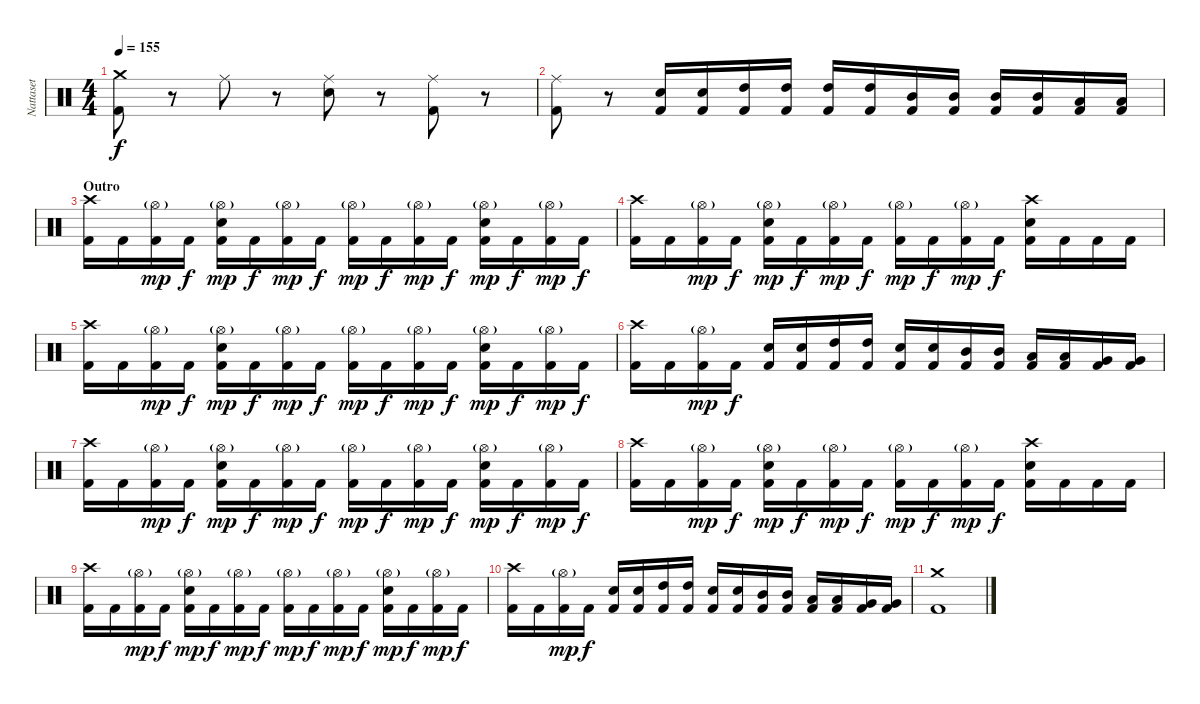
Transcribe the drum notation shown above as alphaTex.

\track ("Nattaset" "Nattaset") {instrument percussion}
\staff {score}
\articulation defaults
\ts (4 4)
\tempo 155
\clef neutral
\ks c
("Crash medium (hit)" "Kick (hit) 2").8{dy f} r.8 "Ride (middle)".8 r.8 ("Ride (middle)" "Electric Snare (hit)").8 r.8 ("Ride (middle)" "Kick (hit) 2").8 r.8 |
("Ride (middle)" "Kick (hit) 2").8 r.8 ("Electric Snare (hit)" "Kick (hit) 2").16 ("Electric Snare (hit)" "Kick (hit) 2").16 ("High Tom (hit)" "Kick (hit) 2").16 ("High Tom (hit)" "Kick (hit) 2").16 ("High Tom (hit)" "Kick (hit) 2").16 ("High Tom (hit)" "Kick (hit) 2").16 ("Mid Tom (hit)" "Kick (hit) 2").16 ("Mid Tom (hit)" "Kick (hit) 2").16 ("Mid Tom (hit)" "Kick (hit) 2").16 ("Mid Tom (hit)" "Kick (hit) 2").16 ("Low Tom (hit)" "Kick (hit) 2").16 ("Low Tom (hit)" "Kick (hit) 2").16 |
\section ("" "Outro")
("Crash high (hit)" "Kick (hit) 2").16 "Kick (hit) 2".16 ("Hi-Hat (open)"{g} "Kick (hit) 2").16{dy mp} "Kick (hit) 2".16{dy f} ("Hi-Hat (open)"{g} "Electric Snare (hit)" "Kick (hit) 2").16{dy mp} "Kick (hit) 2".16{dy f} ("Hi-Hat (open)"{g} "Kick (hit) 2").16{dy mp} "Kick (hit) 2".16{dy f} ("Hi-Hat (open)"{g} "Kick (hit) 2").16{dy mp} "Kick (hit) 2".16{dy f} ("Hi-Hat (open)"{g} "Kick (hit) 2").16{dy mp} "Kick (hit) 2".16{dy f} ("Hi-Hat (open)"{g} "Electric Snare (hit)" "Kick (hit) 2").16{dy mp} "Kick (hit) 2".16{dy f} ("Hi-Hat (open)"{g} "Kick (hit) 2").16{dy mp} "Kick (hit) 2".16{dy f} |
("Crash high (hit)" "Kick (hit) 2").16 "Kick (hit) 2".16 ("Hi-Hat (open)"{g} "Kick (hit) 2").16{dy mp} "Kick (hit) 2".16{dy f} ("Hi-Hat (open)"{g} "Electric Snare (hit)" "Kick (hit) 2").16{dy mp} "Kick (hit) 2".16{dy f} ("Hi-Hat (open)"{g} "Kick (hit) 2").16{dy mp} "Kick (hit) 2".16{dy f} ("Hi-Hat (open)"{g} "Kick (hit) 2").16{dy mp} "Kick (hit) 2".16{dy f} ("Hi-Hat (open)"{g} "Kick (hit) 2").16{dy mp} "Kick (hit) 2".16{dy f} ("Crash high (hit)" "Electric Snare (hit)" "Kick (hit) 2").16 "Kick (hit) 2".16 "Kick (hit) 2".16 "Kick (hit) 2".16 |
("Crash high (hit)" "Kick (hit) 2").16 "Kick (hit) 2".16 ("Hi-Hat (open)"{g} "Kick (hit) 2").16{dy mp} "Kick (hit) 2".16{dy f} ("Hi-Hat (open)"{g} "Electric Snare (hit)" "Kick (hit) 2").16{dy mp} "Kick (hit) 2".16{dy f} ("Hi-Hat (open)"{g} "Kick (hit) 2").16{dy mp} "Kick (hit) 2".16{dy f} ("Hi-Hat (open)"{g} "Kick (hit) 2").16{dy mp} "Kick (hit) 2".16{dy f} ("Hi-Hat (open)"{g} "Kick (hit) 2").16{dy mp} "Kick (hit) 2".16{dy f} ("Hi-Hat (open)"{g} "Electric Snare (hit)" "Kick (hit) 2").16{dy mp} "Kick (hit) 2".16{dy f} ("Hi-Hat (open)"{g} "Kick (hit) 2").16{dy mp} "Kick (hit) 2".16{dy f} |
("Crash high (hit)" "Kick (hit) 2").16 "Kick (hit) 2".16 ("Hi-Hat (open)"{g} "Kick (hit) 2").16{dy mp} "Kick (hit) 2".16{dy f} ("Electric Snare (hit)" "Kick (hit) 2").16 ("Electric Snare (hit)" "Kick (hit) 2").16 ("High Tom (hit)" "Kick (hit) 2").16 ("High Tom (hit)" "Kick (hit) 2").16 ("Electric Snare (hit)" "Kick (hit) 2").16 ("Electric Snare (hit)" "Kick (hit) 2").16 ("Mid Tom (hit)" "Kick (hit) 2").16 ("Mid Tom (hit)" "Kick (hit) 2").16 ("Low Tom (hit)" "Kick (hit) 2").16 ("Low Tom (hit)" "Kick (hit) 2").16 ("Very Low Tom (hit)" "Kick (hit) 2").16 ("Very Low Tom (hit)" "Kick (hit) 2").16 |
("Crash high (hit)" "Kick (hit) 2").16 "Kick (hit) 2".16 ("Hi-Hat (open)"{g} "Kick (hit) 2").16{dy mp} "Kick (hit) 2".16{dy f} ("Hi-Hat (open)"{g} "Electric Snare (hit)" "Kick (hit) 2").16{dy mp} "Kick (hit) 2".16{dy f} ("Hi-Hat (open)"{g} "Kick (hit) 2").16{dy mp} "Kick (hit) 2".16{dy f} ("Hi-Hat (open)"{g} "Kick (hit) 2").16{dy mp} "Kick (hit) 2".16{dy f} ("Hi-Hat (open)"{g} "Kick (hit) 2").16{dy mp} "Kick (hit) 2".16{dy f} ("Hi-Hat (open)"{g} "Electric Snare (hit)" "Kick (hit) 2").16{dy mp} "Kick (hit) 2".16{dy f} ("Hi-Hat (open)"{g} "Kick (hit) 2").16{dy mp} "Kick (hit) 2".16{dy f} |
("Crash high (hit)" "Kick (hit) 2").16 "Kick (hit) 2".16 ("Hi-Hat (open)"{g} "Kick (hit) 2").16{dy mp} "Kick (hit) 2".16{dy f} ("Hi-Hat (open)"{g} "Electric Snare (hit)" "Kick (hit) 2").16{dy mp} "Kick (hit) 2".16{dy f} ("Hi-Hat (open)"{g} "Kick (hit) 2").16{dy mp} "Kick (hit) 2".16{dy f} ("Hi-Hat (open)"{g} "Kick (hit) 2").16{dy mp} "Kick (hit) 2".16{dy f} ("Hi-Hat (open)"{g} "Kick (hit) 2").16{dy mp} "Kick (hit) 2".16{dy f} ("Crash high (hit)" "Electric Snare (hit)" "Kick (hit) 2").16 "Kick (hit) 2".16 "Kick (hit) 2".16 "Kick (hit) 2".16 |
("Crash high (hit)" "Kick (hit) 2").16 "Kick (hit) 2".16 ("Hi-Hat (open)"{g} "Kick (hit) 2").16{dy mp} "Kick (hit) 2".16{dy f} ("Hi-Hat (open)"{g} "Electric Snare (hit)" "Kick (hit) 2").16{dy mp} "Kick (hit) 2".16{dy f} ("Hi-Hat (open)"{g} "Kick (hit) 2").16{dy mp} "Kick (hit) 2".16{dy f} ("Hi-Hat (open)"{g} "Kick (hit) 2").16{dy mp} "Kick (hit) 2".16{dy f} ("Hi-Hat (open)"{g} "Kick (hit) 2").16{dy mp} "Kick (hit) 2".16{dy f} ("Hi-Hat (open)"{g} "Electric Snare (hit)" "Kick (hit) 2").16{dy mp} "Kick (hit) 2".16{dy f} ("Hi-Hat (open)"{g} "Kick (hit) 2").16{dy mp} "Kick (hit) 2".16{dy f} |
("Crash high (hit)" "Kick (hit) 2").16 "Kick (hit) 2".16 ("Hi-Hat (open)"{g} "Kick (hit) 2").16{dy mp} "Kick (hit) 2".16{dy f} ("Electric Snare (hit)" "Kick (hit) 2").16 ("Electric Snare (hit)" "Kick (hit) 2").16 ("High Tom (hit)" "Kick (hit) 2").16 ("High Tom (hit)" "Kick (hit) 2").16 ("Electric Snare (hit)" "Kick (hit) 2").16 ("Electric Snare (hit)" "Kick (hit) 2").16 ("Mid Tom (hit)" "Kick (hit) 2").16 ("Mid Tom (hit)" "Kick (hit) 2").16 ("Low Tom (hit)" "Kick (hit) 2").16 ("Low Tom (hit)" "Kick (hit) 2").16 ("Very Low Tom (hit)" "Kick (hit) 2").16 ("Very Low Tom (hit)" "Kick (hit) 2").16 |
("Crash medium (hit)" "Kick (hit) 2").1
